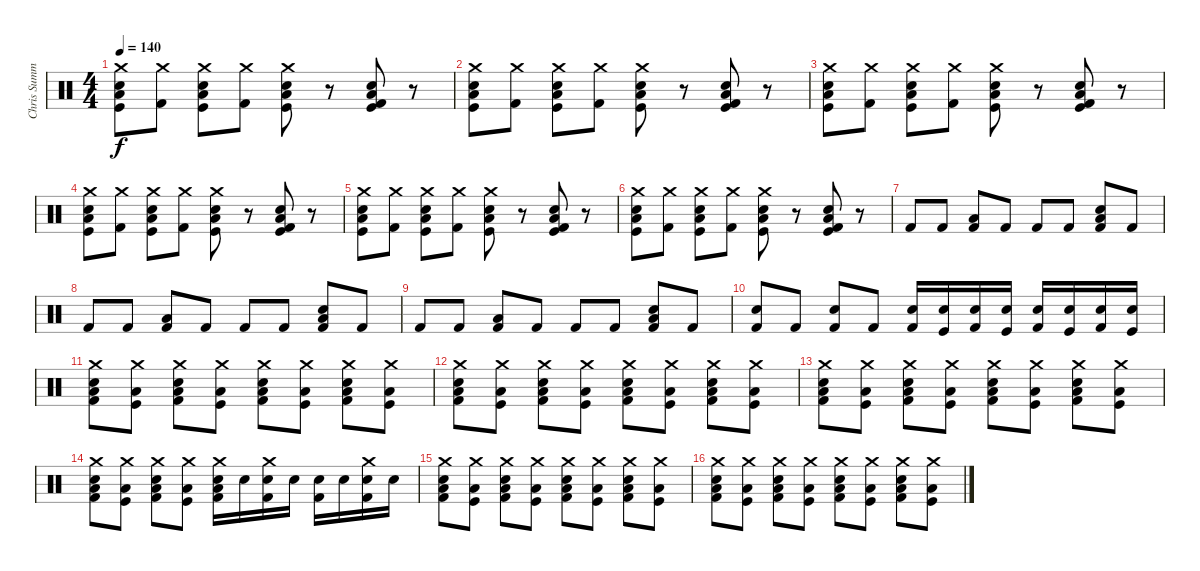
\track ("Chris Summers" "Chris Summ") {instrument percussion}
\staff {score}
\articulation defaults
\ts (4 4)
\tempo 140
\clef neutral
\ks c
("Crash medium (hit)" "Low Floor Tom (hit)" "Snare (hit) 2" "Kick (hit)").8{dy f} ("Crash medium (hit)" "Kick (hit) 2").8 ("Crash medium (hit)" "Low Floor Tom (hit)" "Snare (hit) 2" "Kick (hit)").8 ("Crash medium (hit)" "Kick (hit) 2").8 ("Crash medium (hit)" "Low Floor Tom (hit)" "Snare (hit) 2" "Kick (hit)").8 r.8 ("Kick (hit)" "Low Floor Tom (hit)" "Snare (hit) 2" "Kick (hit) 2").8 r.8 |
("Crash medium (hit)" "Low Floor Tom (hit)" "Snare (hit) 2" "Kick (hit)").8 ("Crash medium (hit)" "Kick (hit) 2").8 ("Crash medium (hit)" "Low Floor Tom (hit)" "Snare (hit) 2" "Kick (hit)").8 ("Crash medium (hit)" "Kick (hit) 2").8 ("Crash medium (hit)" "Low Floor Tom (hit)" "Snare (hit) 2" "Kick (hit)").8 r.8 ("Kick (hit)" "Low Floor Tom (hit)" "Snare (hit) 2" "Kick (hit) 2").8 r.8 |
("Crash medium (hit)" "Low Floor Tom (hit)" "Snare (hit) 2" "Kick (hit)").8 ("Crash medium (hit)" "Kick (hit) 2").8 ("Crash medium (hit)" "Low Floor Tom (hit)" "Snare (hit) 2" "Kick (hit)").8 ("Crash medium (hit)" "Kick (hit) 2").8 ("Crash medium (hit)" "Low Floor Tom (hit)" "Snare (hit) 2" "Kick (hit)").8 r.8 ("Kick (hit)" "Low Floor Tom (hit)" "Snare (hit) 2" "Kick (hit) 2").8 r.8 |
("Crash medium (hit)" "Low Floor Tom (hit)" "Snare (hit) 2" "Kick (hit)").8 ("Crash medium (hit)" "Kick (hit) 2").8 ("Crash medium (hit)" "Low Floor Tom (hit)" "Snare (hit) 2" "Kick (hit)").8 ("Crash medium (hit)" "Kick (hit) 2").8 ("Crash medium (hit)" "Low Floor Tom (hit)" "Snare (hit) 2" "Kick (hit)").8 r.8 ("Kick (hit)" "Low Floor Tom (hit)" "Snare (hit) 2" "Kick (hit) 2").8 r.8 |
("Crash medium (hit)" "Low Floor Tom (hit)" "Snare (hit) 2" "Kick (hit)").8 ("Crash medium (hit)" "Kick (hit) 2").8 ("Crash medium (hit)" "Low Floor Tom (hit)" "Snare (hit) 2" "Kick (hit)").8 ("Crash medium (hit)" "Kick (hit) 2").8 ("Crash medium (hit)" "Low Floor Tom (hit)" "Snare (hit) 2" "Kick (hit)").8 r.8 ("Kick (hit)" "Low Floor Tom (hit)" "Snare (hit) 2" "Kick (hit) 2").8 r.8 |
("Crash medium (hit)" "Low Floor Tom (hit)" "Snare (hit) 2" "Kick (hit)").8 ("Crash medium (hit)" "Kick (hit) 2").8 ("Crash medium (hit)" "Low Floor Tom (hit)" "Snare (hit) 2" "Kick (hit)").8 ("Crash medium (hit)" "Kick (hit) 2").8 ("Crash medium (hit)" "Low Floor Tom (hit)" "Snare (hit) 2" "Kick (hit)").8 r.8 ("Kick (hit)" "Low Floor Tom (hit)" "Snare (hit) 2" "Kick (hit) 2").8 r.8 |
"Kick (hit) 2".8{volume 11} "Kick (hit) 2".8 ("Low Floor Tom (hit)" "Kick (hit) 2").8 "Kick (hit) 2".8 "Kick (hit) 2".8 "Kick (hit) 2".8 ("Snare (hit) 2" "Low Floor Tom (hit)" "Kick (hit) 2").8 "Kick (hit) 2".8 |
"Kick (hit) 2".8 "Kick (hit) 2".8 ("Low Floor Tom (hit)" "Kick (hit) 2").8 "Kick (hit) 2".8 "Kick (hit) 2".8 "Kick (hit) 2".8 ("Snare (hit) 2" "Low Floor Tom (hit)" "Kick (hit) 2").8 "Kick (hit) 2".8 |
"Kick (hit) 2".8 "Kick (hit) 2".8 ("Low Floor Tom (hit)" "Kick (hit) 2").8 "Kick (hit) 2".8 "Kick (hit) 2".8 "Kick (hit) 2".8 ("Snare (hit) 2" "Low Floor Tom (hit)" "Kick (hit) 2").8 "Kick (hit) 2".8 |
("Snare (hit) 2" "Kick (hit) 2").8{volume 16} "Kick (hit) 2".8 ("Kick (hit) 2" "Snare (hit) 2").8 "Kick (hit) 2".8 ("Snare (hit) 2" "Kick (hit) 2").16 ("Snare (hit) 2" "Kick (hit)").16 ("Snare (hit) 2" "Kick (hit) 2").16 ("Snare (hit) 2" "Kick (hit)").16 ("Snare (hit) 2" "Kick (hit) 2").16 ("Snare (hit) 2" "Kick (hit)").16 ("Snare (hit) 2" "Kick (hit) 2").16 ("Snare (hit) 2" "Kick (hit)").16 |
("Crash medium (hit)" "Snare (hit) 2" "Low Floor Tom (hit)" "Kick (hit) 2").8 ("Crash medium (hit)" "Low Floor Tom (hit)" "Kick (hit)").8 ("Crash medium (hit)" "Snare (hit) 2" "Low Floor Tom (hit)" "Kick (hit) 2").8 ("Crash medium (hit)" "Low Floor Tom (hit)" "Kick (hit)").8 ("Crash medium (hit)" "Snare (hit) 2" "Low Floor Tom (hit)" "Kick (hit) 2").8 ("Crash medium (hit)" "Low Floor Tom (hit)" "Kick (hit)").8 ("Crash medium (hit)" "Snare (hit) 2" "Low Floor Tom (hit)" "Kick (hit) 2").8 ("Crash medium (hit)" "Low Floor Tom (hit)" "Kick (hit)").8 |
("Crash medium (hit)" "Snare (hit) 2" "Low Floor Tom (hit)" "Kick (hit) 2").8 ("Crash medium (hit)" "Low Floor Tom (hit)" "Kick (hit)").8 ("Crash medium (hit)" "Snare (hit) 2" "Low Floor Tom (hit)" "Kick (hit) 2").8 ("Crash medium (hit)" "Low Floor Tom (hit)" "Kick (hit)").8 ("Crash medium (hit)" "Snare (hit) 2" "Low Floor Tom (hit)" "Kick (hit) 2").8 ("Crash medium (hit)" "Low Floor Tom (hit)" "Kick (hit)").8 ("Crash medium (hit)" "Snare (hit) 2" "Low Floor Tom (hit)" "Kick (hit) 2").8 ("Crash medium (hit)" "Low Floor Tom (hit)" "Kick (hit)").8 |
("Crash medium (hit)" "Snare (hit) 2" "Low Floor Tom (hit)" "Kick (hit) 2").8 ("Crash medium (hit)" "Low Floor Tom (hit)" "Kick (hit)").8 ("Crash medium (hit)" "Snare (hit) 2" "Low Floor Tom (hit)" "Kick (hit) 2").8 ("Crash medium (hit)" "Low Floor Tom (hit)" "Kick (hit)").8 ("Crash medium (hit)" "Snare (hit) 2" "Low Floor Tom (hit)" "Kick (hit) 2").8 ("Crash medium (hit)" "Low Floor Tom (hit)" "Kick (hit)").8 ("Crash medium (hit)" "Snare (hit) 2" "Low Floor Tom (hit)" "Kick (hit) 2").8 ("Crash medium (hit)" "Low Floor Tom (hit)" "Kick (hit)").8 |
("Crash medium (hit)" "Snare (hit) 2" "Low Floor Tom (hit)" "Kick (hit) 2").8 ("Crash medium (hit)" "Low Floor Tom (hit)" "Kick (hit)").8 ("Crash medium (hit)" "Snare (hit) 2" "Low Floor Tom (hit)" "Kick (hit) 2").8 ("Crash medium (hit)" "Low Floor Tom (hit)" "Kick (hit)").8 ("Crash medium (hit)" "Snare (hit) 2" "Low Floor Tom (hit)" "Kick (hit) 2").16 "Snare (hit) 2".16 ("Crash medium (hit)" "Snare (hit) 2" "Kick (hit) 2").16 "Snare (hit) 2".16 ("Snare (hit) 2" "Kick (hit) 2").16 "Snare (hit) 2".16 ("Crash medium (hit)" "Kick (hit) 2" "Snare (hit) 2").16 "Snare (hit) 2".16 |
("Crash medium (hit)" "Snare (hit) 2" "Low Floor Tom (hit)" "Kick (hit) 2").8 ("Crash medium (hit)" "Low Floor Tom (hit)" "Kick (hit)").8 ("Crash medium (hit)" "Snare (hit) 2" "Low Floor Tom (hit)" "Kick (hit) 2").8 ("Crash medium (hit)" "Low Floor Tom (hit)" "Kick (hit)").8 ("Crash medium (hit)" "Snare (hit) 2" "Low Floor Tom (hit)" "Kick (hit) 2").8 ("Crash medium (hit)" "Low Floor Tom (hit)" "Kick (hit)").8 ("Crash medium (hit)" "Snare (hit) 2" "Low Floor Tom (hit)" "Kick (hit) 2").8 ("Crash medium (hit)" "Low Floor Tom (hit)" "Kick (hit)").8 |
("Crash medium (hit)" "Snare (hit) 2" "Low Floor Tom (hit)" "Kick (hit) 2").8 ("Crash medium (hit)" "Low Floor Tom (hit)" "Kick (hit)").8 ("Crash medium (hit)" "Snare (hit) 2" "Low Floor Tom (hit)" "Kick (hit) 2").8 ("Crash medium (hit)" "Low Floor Tom (hit)" "Kick (hit)").8 ("Crash medium (hit)" "Snare (hit) 2" "Low Floor Tom (hit)" "Kick (hit) 2").8 ("Crash medium (hit)" "Low Floor Tom (hit)" "Kick (hit)").8 ("Crash medium (hit)" "Snare (hit) 2" "Low Floor Tom (hit)" "Kick (hit) 2").8 ("Crash medium (hit)" "Low Floor Tom (hit)" "Kick (hit)").8
